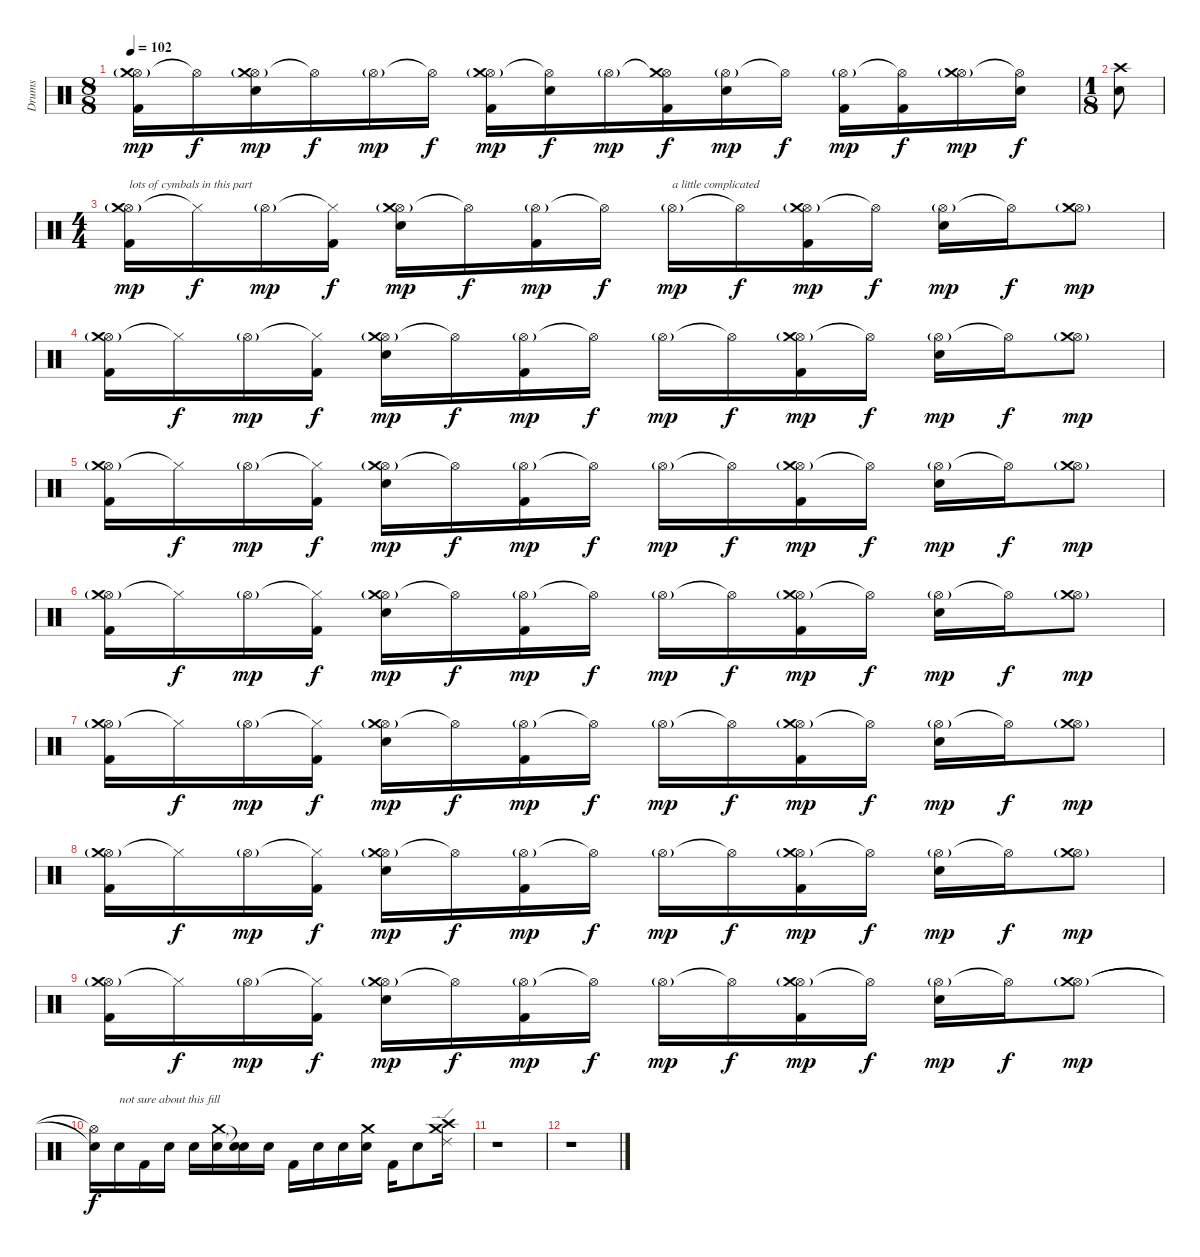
\track ("Drums" "Drums") {instrument percussion}
\staff {score}
\articulation defaults
\ts (8 8)
\tempo 102
\clef neutral
\ks c
("Hi-Hat (open)"{g} "Crash medium (hit)" "Kick (hit) 2").16{dy mp} "Hi-Hat (open)"{t}.16{dy f} ("Hi-Hat (open)"{g} "Electric Snare (hit)" "Crash medium (hit)").16{dy mp} "Hi-Hat (open)"{t}.16{dy f} "Hi-Hat (open)"{g}.16{dy mp} "Hi-Hat (open)"{t}.16{dy f} ("Hi-Hat (open)"{g} "Crash medium (hit)" "Kick (hit) 2").16{dy mp} ("Hi-Hat (open)"{t} "Electric Snare (hit)").16{dy f} "Hi-Hat (open)"{g}.16{dy mp} ("Hi-Hat (open)"{t} "Crash medium (hit)" "Kick (hit) 2").16{dy f} ("Hi-Hat (open)"{g} "Electric Snare (hit)").16{dy mp} "Hi-Hat (open)"{t}.16{dy f} ("Hi-Hat (open)"{g} "Kick (hit) 2").16{dy mp} ("Hi-Hat (open)"{t} "Kick (hit) 2").16{dy f} ("Hi-Hat (open)"{g} "Crash medium (hit)").16{dy mp} ("Hi-Hat (open)"{t} "Electric Snare (hit)").16{dy f} |
\ts (1 8)
("Crash high (hit)" "Electric Snare (hit)").8 |
\ts (4 4)
("Hi-Hat (open)"{g} "Crash medium (hit)" "Kick (hit) 2").16{txt "lots of cymbals in this part" dy mp} "Hi-Hat (closed)"{t}.16{dy f} "Hi-Hat (open)"{g}.16{dy mp} ("Hi-Hat (closed)"{t} "Kick (hit) 2").16{dy f} ("Hi-Hat (open)"{g} "Crash medium (hit)" "Electric Snare (hit)").16{dy mp} "Hi-Hat (open)"{t}.16{dy f} ("Hi-Hat (open)"{g} "Kick (hit) 2").16{dy mp} "Hi-Hat (open)"{t}.16{dy f} "Hi-Hat (open)"{g}.16{txt "a little complicated" dy mp} "Hi-Hat (open)"{t}.16{dy f} ("Hi-Hat (open)"{g} "Crash medium (hit)"{g} "Kick (hit) 2").16{dy mp} "Hi-Hat (open)"{t}.16{dy f} ("Hi-Hat (open)"{g} "Electric Snare (hit)").16{dy mp} "Hi-Hat (open)"{t}.16{dy f} ("Hi-Hat (open)"{g} "Crash medium (hit)").8{dy mp} |
("Hi-Hat (open)"{g} "Crash medium (hit)" "Kick (hit) 2").16 "Hi-Hat (closed)"{t}.16{dy f} "Hi-Hat (open)"{g}.16{dy mp} ("Hi-Hat (closed)"{t} "Kick (hit) 2").16{dy f} ("Hi-Hat (open)"{g} "Crash medium (hit)" "Electric Snare (hit)").16{dy mp} "Hi-Hat (open)"{t}.16{dy f} ("Hi-Hat (open)"{g} "Kick (hit) 2").16{dy mp} "Hi-Hat (open)"{t}.16{dy f} "Hi-Hat (open)"{g}.16{dy mp} "Hi-Hat (open)"{t}.16{dy f} ("Hi-Hat (open)"{g} "Crash medium (hit)"{g} "Kick (hit) 2").16{dy mp} "Hi-Hat (open)"{t}.16{dy f} ("Hi-Hat (open)"{g} "Electric Snare (hit)").16{dy mp} "Hi-Hat (open)"{t}.16{dy f} ("Hi-Hat (open)"{g} "Crash medium (hit)").8{dy mp} |
("Hi-Hat (open)"{g} "Crash medium (hit)" "Kick (hit) 2").16 "Hi-Hat (closed)"{t}.16{dy f} "Hi-Hat (open)"{g}.16{dy mp} ("Hi-Hat (closed)"{t} "Kick (hit) 2").16{dy f} ("Hi-Hat (open)"{g} "Crash medium (hit)" "Electric Snare (hit)").16{dy mp} "Hi-Hat (open)"{t}.16{dy f} ("Hi-Hat (open)"{g} "Kick (hit) 2").16{dy mp} "Hi-Hat (open)"{t}.16{dy f} "Hi-Hat (open)"{g}.16{dy mp} "Hi-Hat (open)"{t}.16{dy f} ("Hi-Hat (open)"{g} "Crash medium (hit)"{g} "Kick (hit) 2").16{dy mp} "Hi-Hat (open)"{t}.16{dy f} ("Hi-Hat (open)"{g} "Electric Snare (hit)").16{dy mp} "Hi-Hat (open)"{t}.16{dy f} ("Hi-Hat (open)"{g} "Crash medium (hit)").8{dy mp} |
("Hi-Hat (open)"{g} "Crash medium (hit)" "Kick (hit) 2").16 "Hi-Hat (closed)"{t}.16{dy f} "Hi-Hat (open)"{g}.16{dy mp} ("Hi-Hat (closed)"{t} "Kick (hit) 2").16{dy f} ("Hi-Hat (open)"{g} "Crash medium (hit)" "Electric Snare (hit)").16{dy mp} "Hi-Hat (open)"{t}.16{dy f} ("Hi-Hat (open)"{g} "Kick (hit) 2").16{dy mp} "Hi-Hat (open)"{t}.16{dy f} "Hi-Hat (open)"{g}.16{dy mp} "Hi-Hat (open)"{t}.16{dy f} ("Hi-Hat (open)"{g} "Crash medium (hit)"{g} "Kick (hit) 2").16{dy mp} "Hi-Hat (open)"{t}.16{dy f} ("Hi-Hat (open)"{g} "Electric Snare (hit)").16{dy mp} "Hi-Hat (open)"{t}.16{dy f} ("Hi-Hat (open)"{g} "Crash medium (hit)").8{dy mp} |
("Hi-Hat (open)"{g} "Crash medium (hit)" "Kick (hit) 2").16 "Hi-Hat (closed)"{t}.16{dy f} "Hi-Hat (open)"{g}.16{dy mp} ("Hi-Hat (closed)"{t} "Kick (hit) 2").16{dy f} ("Hi-Hat (open)"{g} "Crash medium (hit)" "Electric Snare (hit)").16{dy mp} "Hi-Hat (open)"{t}.16{dy f} ("Hi-Hat (open)"{g} "Kick (hit) 2").16{dy mp} "Hi-Hat (open)"{t}.16{dy f} "Hi-Hat (open)"{g}.16{dy mp} "Hi-Hat (open)"{t}.16{dy f} ("Hi-Hat (open)"{g} "Crash medium (hit)"{g} "Kick (hit) 2").16{dy mp} "Hi-Hat (open)"{t}.16{dy f} ("Hi-Hat (open)"{g} "Electric Snare (hit)").16{dy mp} "Hi-Hat (open)"{t}.16{dy f} ("Hi-Hat (open)"{g} "Crash medium (hit)").8{dy mp} |
("Hi-Hat (open)"{g} "Crash medium (hit)" "Kick (hit) 2").16 "Hi-Hat (closed)"{t}.16{dy f} "Hi-Hat (open)"{g}.16{dy mp} ("Hi-Hat (closed)"{t} "Kick (hit) 2").16{dy f} ("Hi-Hat (open)"{g} "Crash medium (hit)" "Electric Snare (hit)").16{dy mp} "Hi-Hat (open)"{t}.16{dy f} ("Hi-Hat (open)"{g} "Kick (hit) 2").16{dy mp} "Hi-Hat (open)"{t}.16{dy f} "Hi-Hat (open)"{g}.16{dy mp} "Hi-Hat (open)"{t}.16{dy f} ("Hi-Hat (open)"{g} "Crash medium (hit)"{g} "Kick (hit) 2").16{dy mp} "Hi-Hat (open)"{t}.16{dy f} ("Hi-Hat (open)"{g} "Electric Snare (hit)").16{dy mp} "Hi-Hat (open)"{t}.16{dy f} ("Hi-Hat (open)"{g} "Crash medium (hit)").8{dy mp} |
("Hi-Hat (open)"{g} "Crash medium (hit)" "Kick (hit) 2").16 "Hi-Hat (closed)"{t}.16{dy f} "Hi-Hat (open)"{g}.16{dy mp} ("Hi-Hat (closed)"{t} "Kick (hit) 2").16{dy f} ("Hi-Hat (open)"{g} "Crash medium (hit)" "Electric Snare (hit)").16{dy mp} "Hi-Hat (open)"{t}.16{dy f} ("Hi-Hat (open)"{g} "Kick (hit) 2").16{dy mp} "Hi-Hat (open)"{t}.16{dy f} "Hi-Hat (open)"{g}.16{dy mp} "Hi-Hat (open)"{t}.16{dy f} ("Hi-Hat (open)"{g} "Crash medium (hit)"{g} "Kick (hit) 2").16{dy mp} "Hi-Hat (open)"{t}.16{dy f} ("Hi-Hat (open)"{g} "Electric Snare (hit)").16{dy mp} "Hi-Hat (open)"{t}.16{dy f} ("Hi-Hat (open)"{g} "Crash medium (hit)").8{dy mp} |
("Hi-Hat (open)"{t} "Snare (hit)"{t}).16{dy f} "Electric Snare (hit)".16{txt "not sure about this fill"} "Kick (hit) 2".16 "Electric Snare (hit)".16 "Electric Snare (hit)".16 ("Crash medium (hit)" "Electric Snare (hit)").16 ("Snare (hit)"{t} "Snare (hit)"{t}).16 "Electric Snare (hit)".16 "Kick (hit) 2".16 "Electric Snare (hit)".16 "Electric Snare (hit)".16 ("Crash medium (hit)" "Electric Snare (hit)").16 "Kick (hit) 2".16 "Electric Snare (hit)".8 ("Crash medium (hit)" "Ride (edge) 2" "Crash high (hit)").16 |
r.1 |
r.1
